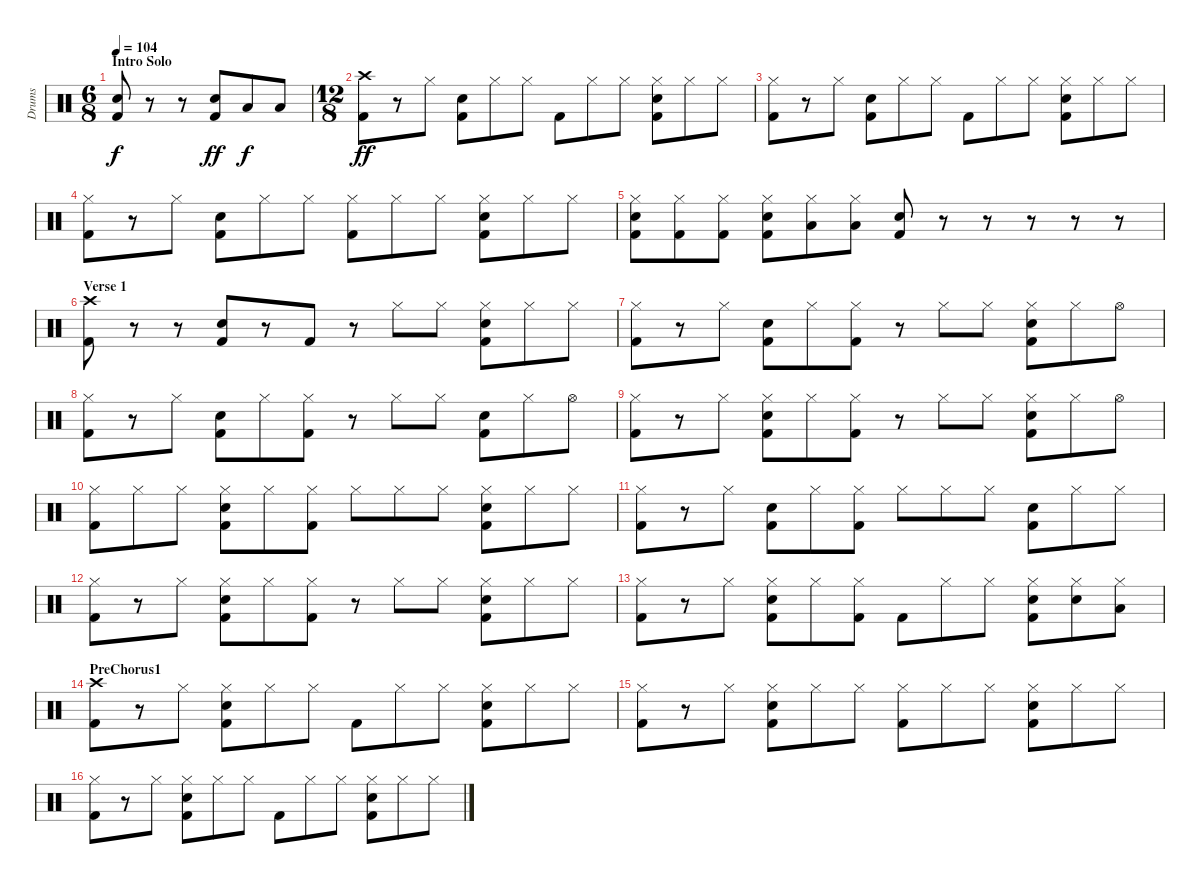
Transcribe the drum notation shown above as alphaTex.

\track ("Drums" "Drums") {instrument percussion}
\staff {score}
\articulation defaults
\ts (6 8)
\section ("" "Intro Solo")
\tempo 104
\clef neutral
\ks c
("Snare (hit) 2" "Kick (hit) 2").8{dy f} r.8 r.8 ("Snare (hit) 2" "Kick (hit) 2").8{dy ff} "Low Tom (hit)".8{dy f} "Low Tom (hit)".8 |
\ts (12 8)
("Crash high (hit)" "Kick (hit) 2").8{dy ff} r.8 "Hi-Hat (closed)".8 ("Snare (hit) 2" "Kick (hit) 2").8 "Hi-Hat (closed)".8 "Hi-Hat (closed)".8 "Kick (hit) 2".8 "Hi-Hat (closed)".8 "Hi-Hat (closed)".8 ("Hi-Hat (closed)" "Snare (hit) 2" "Kick (hit) 2").8 "Hi-Hat (closed)".8 "Hi-Hat (closed)".8 |
("Hi-Hat (closed)" "Kick (hit) 2").8 r.8 "Hi-Hat (closed)".8 ("Snare (hit) 2" "Kick (hit) 2").8 "Hi-Hat (closed)".8 "Hi-Hat (closed)".8 "Kick (hit) 2".8 "Hi-Hat (closed)".8 "Hi-Hat (closed)".8 ("Hi-Hat (closed)" "Snare (hit) 2" "Kick (hit) 2").8 "Hi-Hat (closed)".8 "Hi-Hat (closed)".8 |
("Hi-Hat (closed)" "Kick (hit) 2").8 r.8 "Hi-Hat (closed)".8 ("Snare (hit) 2" "Kick (hit) 2").8 "Hi-Hat (closed)".8 "Hi-Hat (closed)".8 ("Hi-Hat (closed)" "Kick (hit) 2").8 "Hi-Hat (closed)".8 "Hi-Hat (closed)".8 ("Hi-Hat (closed)" "Snare (hit) 2" "Kick (hit) 2").8 "Hi-Hat (closed)".8 "Hi-Hat (closed)".8 |
("Hi-Hat (closed)" "Snare (hit) 2" "Kick (hit) 2").8 ("Hi-Hat (closed)" "Kick (hit) 2").8 ("Hi-Hat (closed)" "Kick (hit) 2").8 ("Hi-Hat (closed)" "Snare (hit) 2" "Kick (hit) 2").8 ("Hi-Hat (closed)" "Low Tom (hit)").8 ("Hi-Hat (closed)" "Low Tom (hit)").8 ("Snare (hit) 2" "Kick (hit) 2").8 r.8 r.8 r.8 r.8 r.8 |
\section ("" "Verse 1")
("Crash high (hit)" "Kick (hit) 2").8 r.8 r.8 ("Snare (hit) 2" "Kick (hit) 2").8 r.8 "Kick (hit) 2".8 r.8 "Hi-Hat (closed)".8 "Hi-Hat (closed)".8 ("Hi-Hat (closed)" "Snare (hit) 2" "Kick (hit) 2").8 "Hi-Hat (closed)".8 "Hi-Hat (closed)".8 |
("Hi-Hat (closed)" "Kick (hit) 2").8 r.8 "Hi-Hat (closed)".8 ("Snare (hit) 2" "Kick (hit) 2").8 "Hi-Hat (closed)".8 ("Hi-Hat (closed)" "Kick (hit) 2").8 r.8 "Hi-Hat (closed)".8 "Hi-Hat (closed)".8 ("Hi-Hat (closed)" "Snare (hit) 2" "Kick (hit) 2").8 "Hi-Hat (closed)".8 "Hi-Hat (open)".8 |
("Hi-Hat (closed)" "Kick (hit) 2").8 r.8 "Hi-Hat (closed)".8 ("Snare (hit) 2" "Kick (hit) 2").8 "Hi-Hat (closed)".8 ("Hi-Hat (closed)" "Kick (hit) 2").8 r.8 "Hi-Hat (closed)".8 "Hi-Hat (closed)".8 ("Snare (hit) 2" "Kick (hit) 2").8 "Hi-Hat (closed)".8 "Hi-Hat (open)".8 |
("Hi-Hat (closed)" "Kick (hit) 2").8 r.8 "Hi-Hat (closed)".8 ("Hi-Hat (closed)" "Snare (hit) 2" "Kick (hit) 2").8 "Hi-Hat (closed)".8 ("Hi-Hat (closed)" "Kick (hit) 2").8 r.8 "Hi-Hat (closed)".8 "Hi-Hat (closed)".8 ("Hi-Hat (closed)" "Snare (hit) 2" "Kick (hit) 2").8 "Hi-Hat (closed)".8 "Hi-Hat (open)".8 |
("Hi-Hat (closed)" "Kick (hit) 2").8 "Hi-Hat (closed)".8 "Hi-Hat (closed)".8 ("Hi-Hat (closed)" "Snare (hit) 2" "Kick (hit) 2").8 "Hi-Hat (closed)".8 ("Hi-Hat (closed)" "Kick (hit) 2").8 "Hi-Hat (closed)".8 "Hi-Hat (closed)".8 "Hi-Hat (closed)".8 ("Hi-Hat (closed)" "Snare (hit) 2" "Kick (hit) 2").8 "Hi-Hat (closed)".8 "Hi-Hat (closed)".8 |
("Hi-Hat (closed)" "Kick (hit) 2").8 r.8 "Hi-Hat (closed)".8 ("Snare (hit) 2" "Kick (hit) 2").8 "Hi-Hat (closed)".8 ("Hi-Hat (closed)" "Kick (hit) 2").8 "Hi-Hat (closed)".8 "Hi-Hat (closed)".8 "Hi-Hat (closed)".8 ("Snare (hit) 2" "Kick (hit) 2").8 "Hi-Hat (closed)".8 "Hi-Hat (closed)".8 |
("Hi-Hat (closed)" "Kick (hit) 2").8 r.8 "Hi-Hat (closed)".8 ("Hi-Hat (closed)" "Snare (hit) 2" "Kick (hit) 2").8 "Hi-Hat (closed)".8 ("Hi-Hat (closed)" "Kick (hit) 2").8 r.8 "Hi-Hat (closed)".8 "Hi-Hat (closed)".8 ("Hi-Hat (closed)" "Snare (hit) 2" "Kick (hit) 2").8 "Hi-Hat (closed)".8 "Hi-Hat (closed)".8 |
("Hi-Hat (closed)" "Kick (hit) 2").8 r.8 "Hi-Hat (closed)".8 ("Hi-Hat (closed)" "Snare (hit) 2" "Kick (hit) 2").8 "Hi-Hat (closed)".8 ("Hi-Hat (closed)" "Kick (hit) 2").8 "Kick (hit) 2".8 "Hi-Hat (closed)".8 "Hi-Hat (closed)".8 ("Hi-Hat (closed)" "Snare (hit) 2" "Kick (hit) 2").8 ("Hi-Hat (closed)" "Snare (hit) 2").8 ("Hi-Hat (closed)" "Low Tom (hit)").8 |
\section ("" "PreChorus1")
("Crash high (hit)" "Kick (hit) 2").8 r.8 "Hi-Hat (closed)".8 ("Hi-Hat (closed)" "Snare (hit) 2" "Kick (hit) 2").8 "Hi-Hat (closed)".8 "Hi-Hat (closed)".8 "Kick (hit) 2".8 "Hi-Hat (closed)".8 "Hi-Hat (closed)".8 ("Hi-Hat (closed)" "Snare (hit) 2" "Kick (hit) 2").8 "Hi-Hat (closed)".8 "Hi-Hat (closed)".8 |
("Hi-Hat (closed)" "Kick (hit) 2").8 r.8 "Hi-Hat (closed)".8 ("Hi-Hat (closed)" "Snare (hit) 2" "Kick (hit) 2").8 "Hi-Hat (closed)".8 "Hi-Hat (closed)".8 ("Hi-Hat (closed)" "Kick (hit) 2").8 "Hi-Hat (closed)".8 "Hi-Hat (closed)".8 ("Hi-Hat (closed)" "Snare (hit) 2" "Kick (hit) 2").8 "Hi-Hat (closed)".8 "Hi-Hat (closed)".8 |
("Hi-Hat (closed)" "Kick (hit) 2").8 r.8 "Hi-Hat (closed)".8 ("Hi-Hat (closed)" "Snare (hit) 2" "Kick (hit) 2").8 "Hi-Hat (closed)".8 "Hi-Hat (closed)".8 "Kick (hit) 2".8 "Hi-Hat (closed)".8 "Hi-Hat (closed)".8 ("Hi-Hat (closed)" "Snare (hit) 2" "Kick (hit) 2").8 "Hi-Hat (closed)".8 "Hi-Hat (closed)".8
